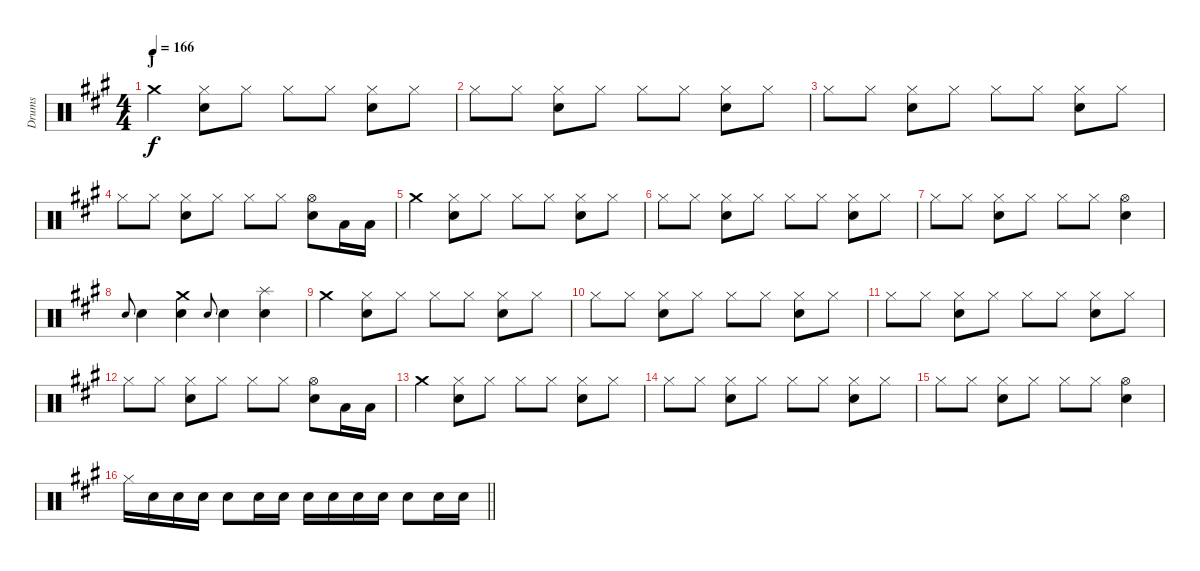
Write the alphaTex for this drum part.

\track ("Drums" "Drums") {instrument percussion}
\staff {score}
\articulation defaults
\ts (4 4)
\section ("" "J")
\tempo 166
\clef neutral
\ks a "Crash medium (hit)".4{dy f}
("Hi-Hat (closed)" "Snare (hit) 2").8 "Hi-Hat (closed)".8 "Hi-Hat (closed)".8 "Hi-Hat (closed)".8 ("Hi-Hat (closed)" "Snare (hit) 2").8 "Hi-Hat (closed)".8 |
"Hi-Hat (closed)".8 "Hi-Hat (closed)".8 ("Hi-Hat (closed)" "Snare (hit) 2").8 "Hi-Hat (closed)".8 "Hi-Hat (closed)".8 "Hi-Hat (closed)".8 ("Hi-Hat (closed)" "Snare (hit) 2").8 "Hi-Hat (closed)".8 |
"Hi-Hat (closed)".8 "Hi-Hat (closed)".8 ("Hi-Hat (closed)" "Snare (hit) 2").8 "Hi-Hat (closed)".8 "Hi-Hat (closed)".8 "Hi-Hat (closed)".8 ("Hi-Hat (closed)" "Snare (hit) 2").8 "Hi-Hat (closed)".8 |
"Hi-Hat (closed)".8 "Hi-Hat (closed)".8 ("Hi-Hat (closed)" "Snare (hit) 2").8 "Hi-Hat (closed)".8 "Hi-Hat (closed)".8 "Hi-Hat (closed)".8 ("Hi-Hat (open)" "Snare (hit) 2").8 "Low Tom (hit)".16 "Low Tom (hit)".16 |
"Crash medium (hit)".4 ("Hi-Hat (closed)" "Snare (hit) 2").8 "Hi-Hat (closed)".8 "Hi-Hat (closed)".8 "Hi-Hat (closed)".8 ("Hi-Hat (closed)" "Snare (hit) 2").8 "Hi-Hat (closed)".8 |
"Hi-Hat (closed)".8 "Hi-Hat (closed)".8 ("Hi-Hat (closed)" "Snare (hit) 2").8 "Hi-Hat (closed)".8 "Hi-Hat (closed)".8 "Hi-Hat (closed)".8 ("Hi-Hat (closed)" "Snare (hit) 2").8 "Hi-Hat (closed)".8 |
"Hi-Hat (closed)".8 "Hi-Hat (closed)".8 ("Hi-Hat (closed)" "Snare (hit) 2").8 "Hi-Hat (closed)".8 "Hi-Hat (closed)".8 "Hi-Hat (closed)".8 ("Hi-Hat (open)" "Snare (hit) 2").4 |
"Snare (hit) 2".8{gr onbeat} "Snare (hit) 2".4 ("Crash medium (hit)" "Snare (hit) 2").4 "Snare (hit) 2".8{gr onbeat} "Snare (hit) 2".4 ("Splash (hit)" "Snare (hit) 2").4 |
"Crash medium (hit)".4 ("Hi-Hat (closed)" "Snare (hit) 2").8 "Hi-Hat (closed)".8 "Hi-Hat (closed)".8 "Hi-Hat (closed)".8 ("Hi-Hat (closed)" "Snare (hit) 2").8 "Hi-Hat (closed)".8 |
"Hi-Hat (closed)".8 "Hi-Hat (closed)".8 ("Hi-Hat (closed)" "Snare (hit) 2").8 "Hi-Hat (closed)".8 "Hi-Hat (closed)".8 "Hi-Hat (closed)".8 ("Hi-Hat (closed)" "Snare (hit) 2").8 "Hi-Hat (closed)".8 |
"Hi-Hat (closed)".8 "Hi-Hat (closed)".8 ("Hi-Hat (closed)" "Snare (hit) 2").8 "Hi-Hat (closed)".8 "Hi-Hat (closed)".8 "Hi-Hat (closed)".8 ("Hi-Hat (closed)" "Snare (hit) 2").8 "Hi-Hat (closed)".8 |
"Hi-Hat (closed)".8 "Hi-Hat (closed)".8 ("Hi-Hat (closed)" "Snare (hit) 2").8 "Hi-Hat (closed)".8 "Hi-Hat (closed)".8 "Hi-Hat (closed)".8 ("Hi-Hat (open)" "Snare (hit) 2").8 "Low Tom (hit)".16 "Low Tom (hit)".16 |
"Crash medium (hit)".4 ("Hi-Hat (closed)" "Snare (hit) 2").8 "Hi-Hat (closed)".8 "Hi-Hat (closed)".8 "Hi-Hat (closed)".8 ("Hi-Hat (closed)" "Snare (hit) 2").8 "Hi-Hat (closed)".8 |
"Hi-Hat (closed)".8 "Hi-Hat (closed)".8 ("Hi-Hat (closed)" "Snare (hit) 2").8 "Hi-Hat (closed)".8 "Hi-Hat (closed)".8 "Hi-Hat (closed)".8 ("Hi-Hat (closed)" "Snare (hit) 2").8 "Hi-Hat (closed)".8 |
"Hi-Hat (closed)".8 "Hi-Hat (closed)".8 ("Hi-Hat (closed)" "Snare (hit) 2").8 "Hi-Hat (closed)".8 "Hi-Hat (closed)".8 "Hi-Hat (closed)".8 ("Hi-Hat (open)" "Snare (hit) 2").4 |
\barLineRight lightlight "Hi-Hat (closed)".16 "Snare (hit) 2".16 "Snare (hit) 2".16 "Snare (hit) 2".16 "Snare (hit) 2".8 "Snare (hit) 2".16 "Snare (hit) 2".16 "Snare (hit) 2".16 "Snare (hit) 2".16 "Snare (hit) 2".16 "Snare (hit) 2".16 "Snare (hit) 2".8 "Snare (hit) 2".16 "Snare (hit) 2".16
